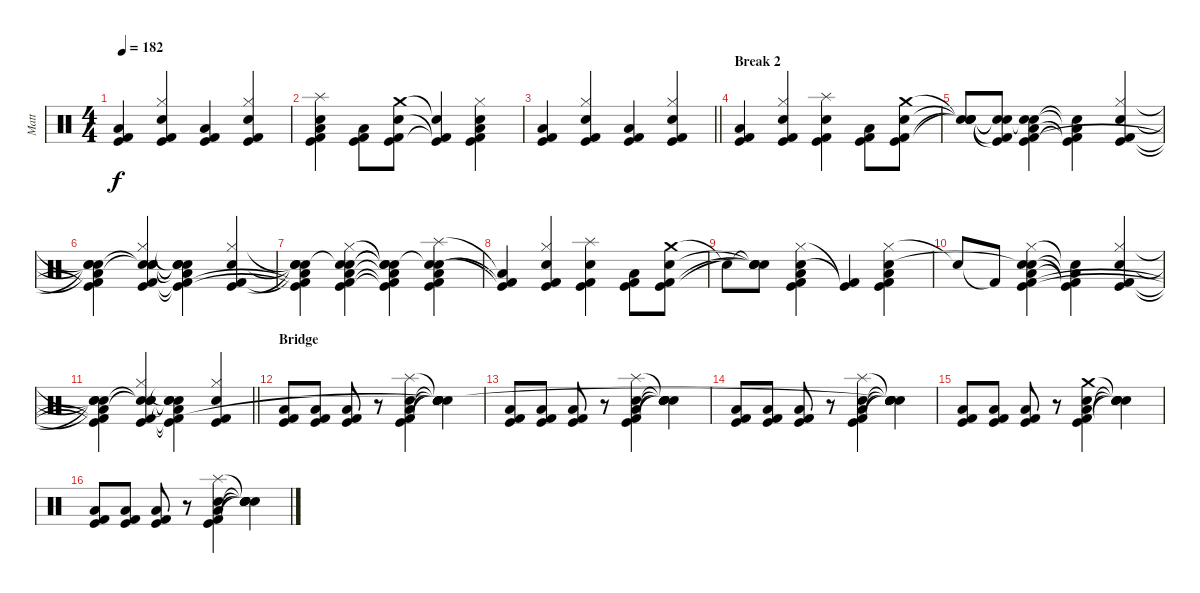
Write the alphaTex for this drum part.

\track ("Matt" "Matt") {instrument percussion}
\staff {score}
\articulation defaults
\ts (4 4)
\tempo 182
\clef neutral
\ks c
("Low Floor Tom (hit)" "Kick (hit)" "Kick (hit) 2").4{dy f} ("Hi-Hat (closed)" "Electric Snare (hit)" "Kick (hit)" "Kick (hit) 2").4 ("Low Floor Tom (hit)" "Kick (hit)" "Kick (hit) 2").4 ("Hi-Hat (closed)" "Electric Snare (hit)" "Kick (hit)" "Kick (hit) 2").4 |
("Splash (hit)" "Electric Snare (hit)" "Low Floor Tom (hit)" "Kick (hit)" "Kick (hit) 2").4 ("Low Floor Tom (hit)" "Kick (hit)" "Kick (hit) 2").8 ("Crash medium (hit)" "Electric Snare (hit)" "Kick (hit)" "Kick (hit) 2").8 ("Electric Snare (hit)"{t} "Kick (hit)"{t} "Kick (hit) 2"{t}).4 ("Hi-Hat (closed)" "Electric Snare (hit)" "Low Floor Tom (hit)" "Kick (hit)" "Kick (hit) 2").4 |
\barLineRight lightlight
("Low Floor Tom (hit)" "Kick (hit)" "Kick (hit) 2").4 ("Hi-Hat (closed)" "Electric Snare (hit)" "Kick (hit)" "Kick (hit) 2").4 ("Low Floor Tom (hit)" "Kick (hit)" "Kick (hit) 2").4 ("Hi-Hat (closed)" "Electric Snare (hit)" "Kick (hit)" "Kick (hit) 2").4 |
\section ("" "Break 2")
("Low Floor Tom (hit)" "Kick (hit)" "Kick (hit) 2").4 ("Hi-Hat (closed)" "Electric Snare (hit)" "Kick (hit)" "Kick (hit) 2").4 ("Splash (hit)" "Electric Snare (hit)" "Kick (hit)" "Kick (hit) 2").4 ("Low Floor Tom (hit)" "Kick (hit)" "Kick (hit) 2").8 ("Crash medium (hit)" "Electric Snare (hit)" "Kick (hit)" "Kick (hit) 2").8 |
("Snare (hit)"{t} "Snare (hit)"{t} "Snare (hit)"{t} "Snare (hit)"{t}).8 ("Snare (hit)"{t} "Snare (hit)"{t} "Kick (hit)"{t} "Kick (hit) 2"{t}).8 ("Snare (hit)"{t} "Electric Snare (hit)" "Low Floor Tom (hit)" "Kick (hit)" "Kick (hit) 2").4 ("Snare (hit)"{t} "Low Floor Tom (hit)"{t} "Kick (hit)"{t} "Kick (hit) 2"{t}).4 ("Hi-Hat (closed)" "Electric Snare (hit)" "Kick (hit)" "Kick (hit) 2").4 |
("Snare (hit)"{t} "Snare (hit)"{t} "Snare (hit)"{t} "Low Floor Tom (hit)"{t} "Kick (hit)"{t} "Kick (hit) 2").4 ("Hi-Hat (closed)" "Snare (hit)"{t} "Electric Snare (hit)" "Snare (hit)"{t} "Kick (hit)" "Kick (hit) 2").4 ("Snare (hit)"{t} "Snare (hit)"{t} "Snare (hit)"{t} "Low Floor Tom (hit)"{t} "Kick (hit)"{t} "Kick (hit) 2"{t}).4 ("Hi-Hat (closed)" "Electric Snare (hit)" "Kick (hit)" "Kick (hit) 2").4 |
("Snare (hit)"{t} "Snare (hit)"{t} "Snare (hit)"{t} "Low Floor Tom (hit)"{t} "Kick (hit)"{t} "Kick (hit) 2"{t}).4 ("Hi-Hat (closed)" "Snare (hit)"{t} "Electric Snare (hit)" "Low Floor Tom (hit)" "Kick (hit)" "Kick (hit) 2").4 ("Snare (hit)"{t} "Snare (hit)"{t} "Snare (hit)"{t} "Low Floor Tom (hit)"{t} "Kick (hit)"{t} "Kick (hit) 2"{t}).4 ("Splash (hit)" "Snare (hit)"{t} "Electric Snare (hit)" "Low Floor Tom (hit)" "Kick (hit)" "Kick (hit) 2").4 |
("Low Floor Tom (hit)"{t} "Kick (hit)"{t} "Kick (hit) 2"{t}).4 ("Hi-Hat (closed)" "Electric Snare (hit)" "Kick (hit)" "Kick (hit) 2").4 ("Splash (hit)" "Electric Snare (hit)" "Kick (hit)" "Kick (hit) 2").4 ("Low Floor Tom (hit)" "Kick (hit)" "Kick (hit) 2").8 ("Crash medium (hit)" "Electric Snare (hit)" "Kick (hit)" "Kick (hit) 2").8 |
"Snare (hit)"{t}.8 ("Snare (hit)"{t} "Snare (hit)"{t} "Snare (hit)"{t} "Snare (hit)"{t}).8 ("Hi-Hat (closed)" "Electric Snare (hit)" "Low Floor Tom (hit)" "Kick (hit)" "Kick (hit) 2").4 ("Kick (hit)"{t} "Kick (hit) 2"{t}).4 ("Hi-Hat (closed)" "Electric Snare (hit)" "Low Floor Tom (hit)" "Kick (hit)" "Kick (hit) 2").4 |
"Snare (hit)"{t}.8 "Kick (hit) 2"{t}.8 ("Hi-Hat (closed)" "Snare (hit)"{t} "Electric Snare (hit)" "Low Floor Tom (hit)" "Kick (hit)" "Kick (hit) 2").4 ("Snare (hit)"{t} "Low Floor Tom (hit)"{t} "Kick (hit)"{t} "Kick (hit) 2"{t}).4 ("Hi-Hat (closed)" "Electric Snare (hit)" "Kick (hit)" "Kick (hit) 2").4 |
\barLineRight lightlight
("Snare (hit)"{t} "Snare (hit)"{t} "Snare (hit)"{t} "Low Floor Tom (hit)"{t} "Kick (hit)"{t} "Kick (hit) 2"{t}).4 ("Hi-Hat (closed)" "Snare (hit)"{t} "Electric Snare (hit)" "Snare (hit)"{t} "Kick (hit)" "Kick (hit) 2").4 ("Snare (hit)"{t} "Snare (hit)"{t} "Snare (hit)"{t} "Low Floor Tom (hit)"{t} "Kick (hit)"{t} "Kick (hit) 2"{t}).4 ("Hi-Hat (closed)" "Electric Snare (hit)" "Kick (hit)" "Kick (hit) 2").4 |
\section ("" "Bridge")
("Low Floor Tom (hit)" "Kick (hit)" "Kick (hit) 2").8 ("Low Floor Tom (hit)" "Kick (hit)" "Kick (hit) 2").8 ("Low Floor Tom (hit)" "Kick (hit)" "Kick (hit) 2").8 r.8 ("Splash (hit)" "Electric Snare (hit)" "Low Floor Tom (hit)" "Kick (hit)" "Kick (hit) 2").4 ("Snare (hit)"{t} "Snare (hit)"{t} "Snare (hit)"{t} "Snare (hit)"{t} "Snare (hit)"{t} "Snare (hit)"{t}).4 |
("Low Floor Tom (hit)" "Kick (hit)" "Kick (hit) 2").8 ("Low Floor Tom (hit)" "Kick (hit)" "Kick (hit) 2").8 ("Low Floor Tom (hit)" "Kick (hit)" "Kick (hit) 2").8 r.8 ("Splash (hit)" "Electric Snare (hit)" "Low Floor Tom (hit)" "Kick (hit)" "Kick (hit) 2").4 ("Snare (hit)"{t} "Snare (hit)"{t} "Snare (hit)"{t} "Snare (hit)"{t} "Snare (hit)"{t}).4 |
("Low Floor Tom (hit)" "Kick (hit)" "Kick (hit) 2").8 ("Low Floor Tom (hit)" "Kick (hit)" "Kick (hit) 2").8 ("Low Floor Tom (hit)" "Kick (hit)" "Kick (hit) 2").8 r.8 ("Splash (hit)" "Electric Snare (hit)" "Low Floor Tom (hit)" "Kick (hit)" "Kick (hit) 2").4 ("Snare (hit)"{t} "Snare (hit)"{t} "Snare (hit)"{t} "Snare (hit)"{t} "Snare (hit)"{t} "Snare (hit)"{t}).4 |
("Low Floor Tom (hit)" "Kick (hit)" "Kick (hit) 2").8 ("Low Floor Tom (hit)" "Kick (hit)" "Kick (hit) 2").8 ("Low Floor Tom (hit)" "Kick (hit)" "Kick (hit) 2").8 r.8 ("Crash medium (hit)" "Electric Snare (hit)" "Low Floor Tom (hit)" "Kick (hit)" "Kick (hit) 2").4 ("Snare (hit)"{t} "Snare (hit)"{t} "Snare (hit)"{t} "Snare (hit)"{t} "Snare (hit)"{t}).4 |
("Low Floor Tom (hit)" "Kick (hit)" "Kick (hit) 2").8 ("Low Floor Tom (hit)" "Kick (hit)" "Kick (hit) 2").8 ("Low Floor Tom (hit)" "Kick (hit)" "Kick (hit) 2").8 r.8 ("Splash (hit)" "Electric Snare (hit)" "Low Floor Tom (hit)" "Kick (hit)" "Kick (hit) 2").4 ("Snare (hit)"{t} "Snare (hit)"{t} "Snare (hit)"{t} "Snare (hit)"{t} "Snare (hit)"{t}).4
